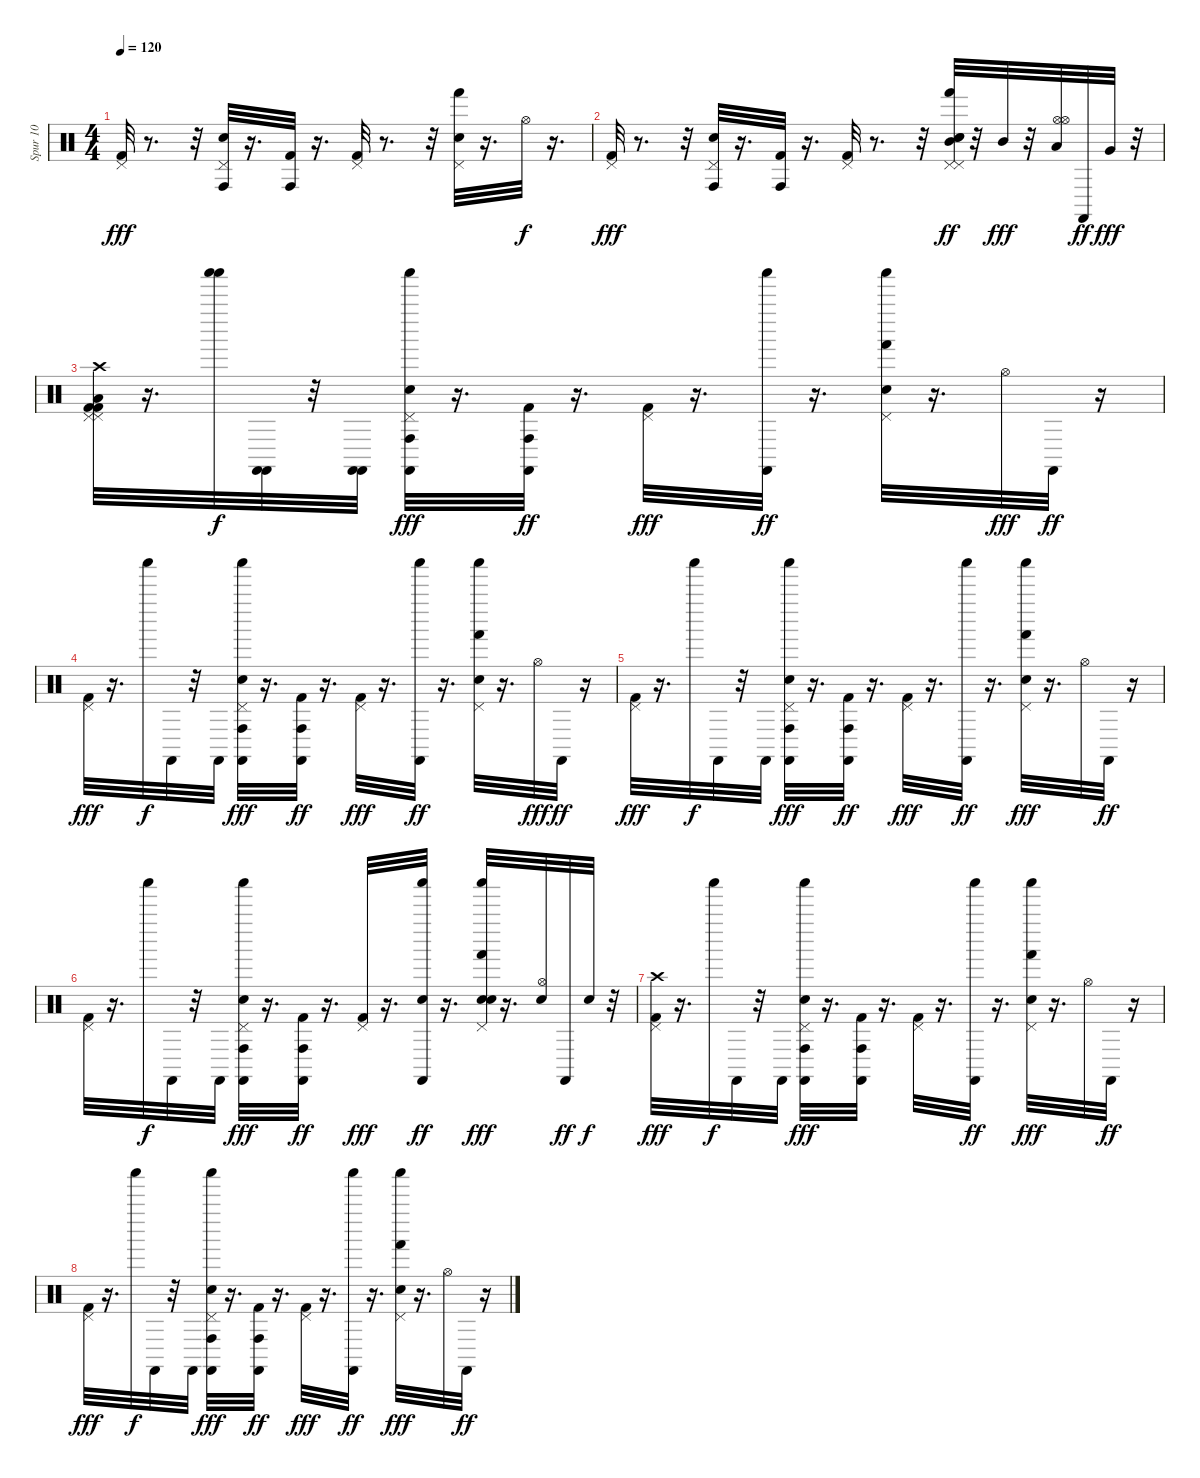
\track ("Spur 10" "Spur 10") {instrument percussion}
\staff {score}
\articulation defaults
\ts (4 4)
\tempo 120
\clef neutral
\ks c
("Kick (hit) 2" "Pedal Hi-Hat (hit)").32{dy fff} r.8{d} r.32 ("Snare (hit) 2" "Conga high (hit)" "Pedal Hi-Hat (hit)").32 r.16{d} ("Conga high (hit)" "Kick (hit) 2").32 r.16{d} ("Kick (hit) 2" "Pedal Hi-Hat (hit)").32 r.8{d} r.32 ("Hand (hit)" "Pedal Hi-Hat (hit)" "Snare (hit) 2").32 r.16{d} "Hi-Hat (open)".32{dy f} r.16{d} |
("Kick (hit) 2" "Pedal Hi-Hat (hit)").32{dy fff} r.8{d} r.32 ("Snare (hit) 2" "Conga high (hit)" "Pedal Hi-Hat (hit)").32 r.16{d} ("Kick (hit) 2" "Conga high (hit)").32 r.16{d} ("Pedal Hi-Hat (hit)" "Kick (hit) 2").32 r.8{d} r.32 ("Mid Tom (hit)" "Snare (hit) 2" "Pedal Hi-Hat (hit)" "Snare (hit) 2" "Pedal Hi-Hat (hit)" "Hand (hit)").32{dy ff} r.32 "Mid Tom (hit)".32{dy fff} r.32 ("Low Tom (hit)" "Hi-Hat (open)" "Hi-Hat (open)").32 "Castanets (hit)".32{dy ff} "Very Low Tom (hit)".32{dy fff} r.32 |
("Low Floor Tom (hit)" "Crash high (hit)" "Pedal Hi-Hat (hit)" "Pedal Hi-Hat (hit)" "Kick (hit) 2" "Kick (hit) 2").32 r.16{d} ("Shaker (hit)" "Shaker (hit)").32{dy f} ("Castanets (hit)" "Castanets (hit)").32 r.32 ("Castanets (hit)" "Castanets (hit)").32 ("Pedal Hi-Hat (hit)" "Shaker (hit)" "Castanets (hit)" "Conga high (hit)" "Snare (hit) 2").32{dy fff} r.16{d} ("Conga high (hit)" "Kick (hit) 2" "Castanets (hit)").32{dy ff} r.16{d} ("Pedal Hi-Hat (hit)" "Kick (hit) 2").32{dy fff} r.16{d} ("Castanets (hit)" "Shaker (hit)").32{dy ff} r.16{d} ("Pedal Hi-Hat (hit)" "Hand (hit)" "Snare (hit) 2" "Shaker (hit)").32 r.16{d} "Hi-Hat (open)".32{dy fff} "Castanets (hit)".32{dy ff} r.16 |
("Pedal Hi-Hat (hit)" "Kick (hit) 2").32{dy fff} r.16{d} "Shaker (hit)".32{dy f} "Castanets (hit)".32 r.32 "Castanets (hit)".32 ("Pedal Hi-Hat (hit)" "Snare (hit) 2" "Castanets (hit)" "Shaker (hit)" "Conga high (hit)").32{dy fff} r.16{d} ("Kick (hit) 2" "Conga high (hit)" "Castanets (hit)").32{dy ff} r.16{d} ("Kick (hit) 2" "Pedal Hi-Hat (hit)").32{dy fff} r.16{d} ("Shaker (hit)" "Castanets (hit)").32{dy ff} r.16{d} ("Snare (hit) 2" "Pedal Hi-Hat (hit)" "Hand (hit)" "Shaker (hit)").32 r.16{d} "Hi-Hat (open)".32{dy fff} "Castanets (hit)".32{dy ff} r.16 |
("Pedal Hi-Hat (hit)" "Kick (hit) 2").32{dy fff} r.16{d} "Shaker (hit)".32{dy f} "Castanets (hit)".32 r.32 "Castanets (hit)".32 ("Conga high (hit)" "Castanets (hit)" "Pedal Hi-Hat (hit)" "Shaker (hit)" "Snare (hit) 2").32{dy fff} r.16{d} ("Conga high (hit)" "Kick (hit) 2" "Castanets (hit)").32{dy ff} r.16{d} ("Pedal Hi-Hat (hit)" "Kick (hit) 2").32{dy fff} r.16{d} ("Shaker (hit)" "Castanets (hit)").32{dy ff} r.16{d} ("Shaker (hit)" "Pedal Hi-Hat (hit)" "Snare (hit) 2" "Hand (hit)").32{dy fff} r.16{d} "Hi-Hat (open)".32 "Castanets (hit)".32{dy ff} r.16 |
("Kick (hit) 2" "Pedal Hi-Hat (hit)").32 r.16{d} "Shaker (hit)".32{dy f} "Castanets (hit)".32 r.32 "Castanets (hit)".32 ("Pedal Hi-Hat (hit)" "Snare (hit) 2" "Shaker (hit)" "Castanets (hit)" "Conga high (hit)").32{dy fff} r.16{d} ("Castanets (hit)" "Conga high (hit)" "Kick (hit) 2").32{dy ff} r.16{d} ("Pedal Hi-Hat (hit)" "Kick (hit) 2").32{dy fff} r.16{d} ("Electric Snare (hit)" "Shaker (hit)" "Castanets (hit)").32{dy ff} r.16{d} ("Electric Snare (hit)" "Snare (hit) 2" "Shaker (hit)" "Pedal Hi-Hat (hit)" "Hand (hit)").32{dy fff} r.16{d} ("Snare (hit) 2" "Hi-Hat (open)").32 "Castanets (hit)".32{dy ff} "Snare (hit) 2".32{dy f} r.32 |
("Crash high (hit)" "Pedal Hi-Hat (hit)" "Kick (hit) 2").32{dy fff} r.16{d} "Shaker (hit)".32{dy f} "Castanets (hit)".32 r.32 "Castanets (hit)".32 ("Shaker (hit)" "Pedal Hi-Hat (hit)" "Snare (hit) 2" "Castanets (hit)" "Conga high (hit)").32{dy fff} r.16{d} ("Castanets (hit)" "Kick (hit) 2" "Conga high (hit)").32 r.16{d} ("Pedal Hi-Hat (hit)" "Kick (hit) 2").32 r.16{d} ("Castanets (hit)" "Shaker (hit)").32{dy ff} r.16{d} ("Pedal Hi-Hat (hit)" "Hand (hit)" "Shaker (hit)" "Snare (hit) 2").32{dy fff} r.16{d} "Hi-Hat (open)".32 "Castanets (hit)".32{dy ff} r.16 |
("Pedal Hi-Hat (hit)" "Kick (hit) 2").32{dy fff} r.16{d} "Shaker (hit)".32{dy f} "Castanets (hit)".32 r.32 "Castanets (hit)".32 ("Castanets (hit)" "Pedal Hi-Hat (hit)" "Shaker (hit)" "Snare (hit) 2" "Conga high (hit)").32{dy fff} r.16{d} ("Kick (hit) 2" "Conga high (hit)" "Castanets (hit)").32{dy ff} r.16{d} ("Pedal Hi-Hat (hit)" "Kick (hit) 2").32{dy fff} r.16{d} ("Castanets (hit)" "Shaker (hit)").32{dy ff} r.16{d} ("Shaker (hit)" "Snare (hit) 2" "Pedal Hi-Hat (hit)" "Hand (hit)").32{dy fff} r.16{d} "Hi-Hat (open)".32 "Castanets (hit)".32{dy ff} r.16
